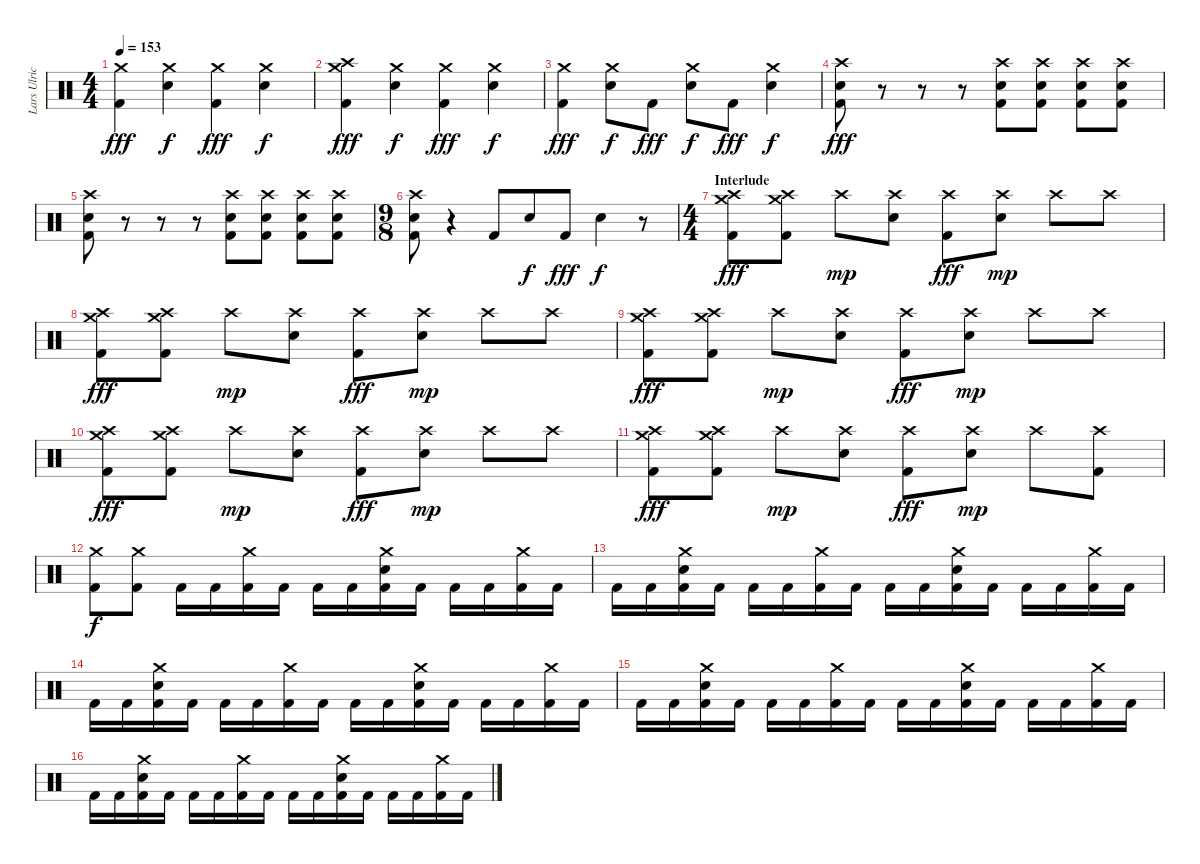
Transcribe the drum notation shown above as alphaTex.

\track ("Lars Ulrich (Drums)" "Lars Ulric") {instrument percussion}
\staff {score}
\articulation defaults
\ts (4 4)
\tempo 153
\clef neutral
\ks c
("Crash medium (hit)" "Kick (hit) 2").4{dy fff} ("Crash medium (hit)" "Electric Snare (hit)").4{dy f} ("Crash medium (hit)" "Kick (hit) 2").4{dy fff} ("Crash medium (hit)" "Electric Snare (hit)").4{dy f} |
("Crash medium (hit)" "Crash high (hit)" "Kick (hit) 2").4{dy fff} ("Crash medium (hit)" "Electric Snare (hit)").4{dy f} ("Crash medium (hit)" "Kick (hit) 2").4{dy fff} ("Crash medium (hit)" "Electric Snare (hit)").4{dy f} |
("Crash medium (hit)" "Kick (hit) 2").4{dy fff} ("Crash medium (hit)" "Electric Snare (hit)").8{dy f} "Kick (hit) 2".8{dy fff} ("Crash medium (hit)" "Electric Snare (hit)").8{dy f} "Kick (hit) 2".8{dy fff} ("Crash medium (hit)" "Electric Snare (hit)").4{dy f} |
("Crash high (hit)" "Electric Snare (hit)" "Kick (hit) 2").8{dy fff} r.8 r.8 r.8 ("Crash high (hit)" "Electric Snare (hit)" "Kick (hit) 2").8 ("Crash high (hit)" "Electric Snare (hit)" "Kick (hit) 2").8 ("Crash high (hit)" "Electric Snare (hit)" "Kick (hit) 2").8 ("Crash high (hit)" "Electric Snare (hit)" "Kick (hit) 2").8 |
("Crash high (hit)" "Electric Snare (hit)" "Kick (hit) 2").8 r.8 r.8 r.8 ("Crash high (hit)" "Electric Snare (hit)" "Kick (hit) 2").8 ("Crash high (hit)" "Electric Snare (hit)" "Kick (hit) 2").8 ("Crash high (hit)" "Electric Snare (hit)" "Kick (hit) 2").8 ("Crash high (hit)" "Electric Snare (hit)" "Kick (hit) 2").8 |
\ts (9 8)
("Crash high (hit)" "Electric Snare (hit)" "Kick (hit) 2").8 r.4 "Kick (hit) 2".8 "Electric Snare (hit)".8{dy f} "Kick (hit) 2".8{dy fff} "Electric Snare (hit)".4{dy f} r.8 |
\ts (4 4)
\section ("" "Interlude")
("Crash high (hit)" "Crash medium (hit)" "Kick (hit) 2").8{dy fff} ("Crash high (hit)" "Crash medium (hit)" "Kick (hit) 2").8 "Crash high (hit)".8{dy mp} ("Crash high (hit)" "Electric Snare (hit)").8 ("Crash high (hit)" "Kick (hit) 2").8{dy fff} ("Crash high (hit)" "Electric Snare (hit)").8{dy mp} "Crash high (hit)".8 "Crash high (hit)".8 |
("Crash high (hit)" "Crash medium (hit)" "Kick (hit) 2").8{dy fff} ("Crash high (hit)" "Crash medium (hit)" "Kick (hit) 2").8 "Crash high (hit)".8{dy mp} ("Crash high (hit)" "Electric Snare (hit)").8 ("Crash high (hit)" "Kick (hit) 2").8{dy fff} ("Crash high (hit)" "Electric Snare (hit)").8{dy mp} "Crash high (hit)".8 "Crash high (hit)".8 |
("Crash high (hit)" "Crash medium (hit)" "Kick (hit) 2").8{dy fff} ("Crash high (hit)" "Crash medium (hit)" "Kick (hit) 2").8 "Crash high (hit)".8{dy mp} ("Crash high (hit)" "Electric Snare (hit)").8 ("Crash high (hit)" "Kick (hit) 2").8{dy fff} ("Crash high (hit)" "Electric Snare (hit)").8{dy mp} "Crash high (hit)".8 "Crash high (hit)".8 |
("Crash high (hit)" "Crash medium (hit)" "Kick (hit) 2").8{dy fff} ("Crash high (hit)" "Crash medium (hit)" "Kick (hit) 2").8 "Crash high (hit)".8{dy mp} ("Crash high (hit)" "Electric Snare (hit)").8 ("Crash high (hit)" "Kick (hit) 2").8{dy fff} ("Crash high (hit)" "Electric Snare (hit)").8{dy mp} "Crash high (hit)".8 "Crash high (hit)".8 |
("Crash high (hit)" "Crash medium (hit)" "Kick (hit) 2").8{dy fff} ("Crash high (hit)" "Crash medium (hit)" "Kick (hit) 2").8 "Crash high (hit)".8{dy mp} ("Crash high (hit)" "Electric Snare (hit)").8 ("Crash high (hit)" "Kick (hit) 2").8{dy fff} ("Crash high (hit)" "Electric Snare (hit)").8{dy mp} "Crash high (hit)".8 ("Crash high (hit)" "Kick (hit) 2").8 |
("Crash medium (hit)" "Kick (hit) 2").8{dy f} ("Crash medium (hit)" "Kick (hit) 2").8 "Kick (hit) 2".16 "Kick (hit) 2".16 ("Crash medium (hit)" "Kick (hit) 2").16 "Kick (hit) 2".16 "Kick (hit) 2".16 "Kick (hit) 2".16 ("Crash medium (hit)" "Electric Snare (hit)" "Kick (hit) 2").16 "Kick (hit) 2".16 "Kick (hit) 2".16 "Kick (hit) 2".16 ("Crash medium (hit)" "Kick (hit) 2").16 "Kick (hit) 2".16 |
"Kick (hit) 2".16 "Kick (hit) 2".16 ("Crash medium (hit)" "Electric Snare (hit)" "Kick (hit) 2").16 "Kick (hit) 2".16 "Kick (hit) 2".16 "Kick (hit) 2".16 ("Crash medium (hit)" "Kick (hit) 2").16 "Kick (hit) 2".16 "Kick (hit) 2".16 "Kick (hit) 2".16 ("Crash medium (hit)" "Electric Snare (hit)" "Kick (hit) 2").16 "Kick (hit) 2".16 "Kick (hit) 2".16 "Kick (hit) 2".16 ("Crash medium (hit)" "Kick (hit) 2").16 "Kick (hit) 2".16 |
"Kick (hit) 2".16 "Kick (hit) 2".16 ("Crash medium (hit)" "Electric Snare (hit)" "Kick (hit) 2").16 "Kick (hit) 2".16 "Kick (hit) 2".16 "Kick (hit) 2".16 ("Crash medium (hit)" "Kick (hit) 2").16 "Kick (hit) 2".16 "Kick (hit) 2".16 "Kick (hit) 2".16 ("Crash medium (hit)" "Electric Snare (hit)" "Kick (hit) 2").16 "Kick (hit) 2".16 "Kick (hit) 2".16 "Kick (hit) 2".16 ("Crash medium (hit)" "Kick (hit) 2").16 "Kick (hit) 2".16 |
"Kick (hit) 2".16 "Kick (hit) 2".16 ("Crash medium (hit)" "Electric Snare (hit)" "Kick (hit) 2").16 "Kick (hit) 2".16 "Kick (hit) 2".16 "Kick (hit) 2".16 ("Crash medium (hit)" "Kick (hit) 2").16 "Kick (hit) 2".16 "Kick (hit) 2".16 "Kick (hit) 2".16 ("Crash medium (hit)" "Electric Snare (hit)" "Kick (hit) 2").16 "Kick (hit) 2".16 "Kick (hit) 2".16 "Kick (hit) 2".16 ("Crash medium (hit)" "Kick (hit) 2").16 "Kick (hit) 2".16 |
"Kick (hit) 2".16 "Kick (hit) 2".16 ("Crash medium (hit)" "Electric Snare (hit)" "Kick (hit) 2").16 "Kick (hit) 2".16 "Kick (hit) 2".16 "Kick (hit) 2".16 ("Crash medium (hit)" "Kick (hit) 2").16 "Kick (hit) 2".16 "Kick (hit) 2".16 "Kick (hit) 2".16 ("Crash medium (hit)" "Electric Snare (hit)" "Kick (hit) 2").16 "Kick (hit) 2".16 "Kick (hit) 2".16 "Kick (hit) 2".16 ("Crash medium (hit)" "Kick (hit) 2").16 "Kick (hit) 2".16
